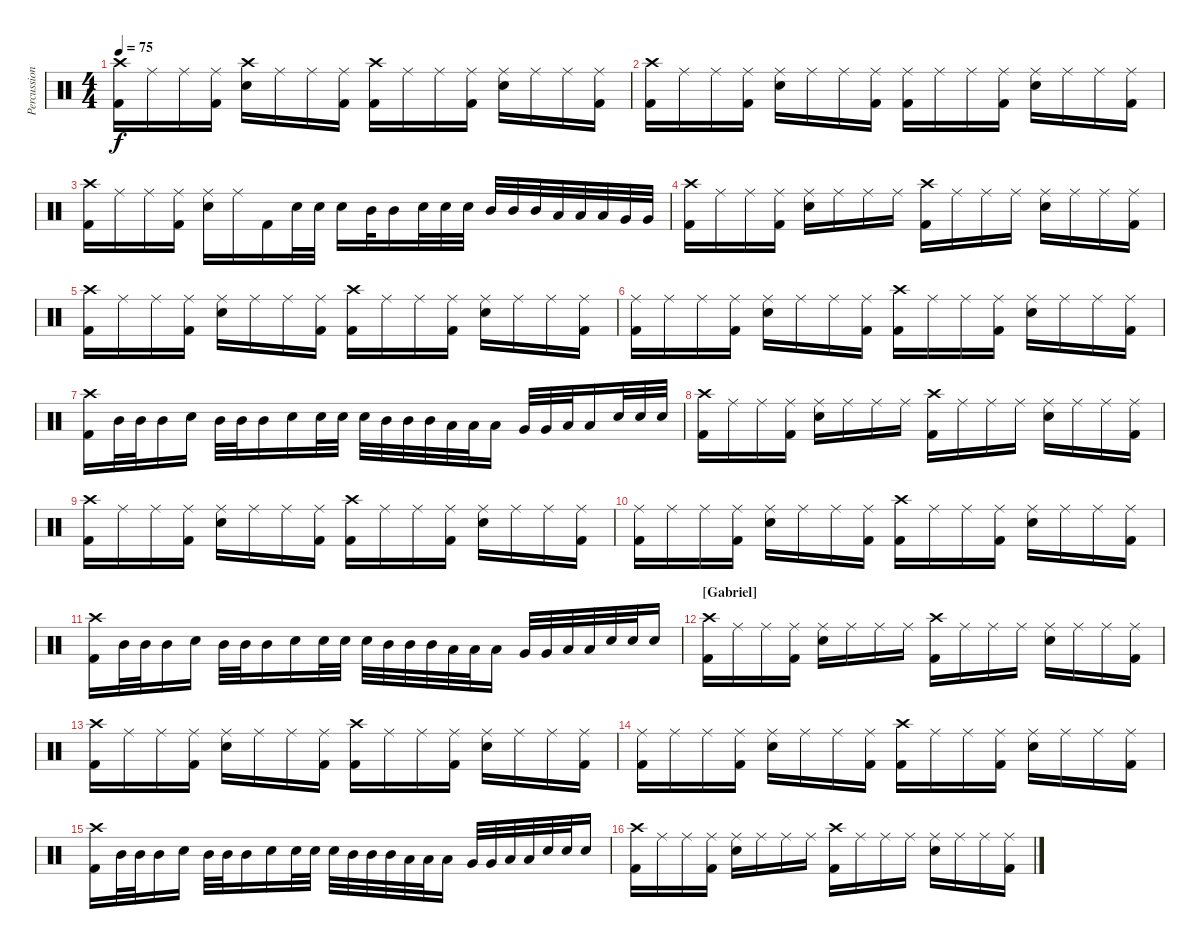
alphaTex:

\track ("Percussions" "Percussion") {instrument percussion}
\staff {score}
\articulation defaults
\ts (4 4)
\tempo 75
\clef neutral
\ks c
("Crash high (hit)" "Kick (hit) 2").16{dy f} "Ride (middle)".16 "Ride (middle)".16 ("Ride (middle)" "Kick (hit) 2").16 ("Crash high (hit)" "Electric Snare (hit)").16 "Ride (middle)".16 "Ride (middle)".16 ("Ride (middle)" "Kick (hit) 2").16 ("Crash high (hit)" "Kick (hit) 2").16 "Ride (middle)".16 "Ride (middle)".16 ("Ride (middle)" "Kick (hit) 2").16 ("Ride (middle)" "Electric Snare (hit)").16 "Ride (middle)".16 "Ride (middle)".16 ("Ride (middle)" "Kick (hit) 2").16 |
("Crash high (hit)" "Kick (hit) 2").16 "Ride (middle)".16 "Ride (middle)".16 ("Ride (middle)" "Kick (hit) 2").16 ("Ride (middle)" "Electric Snare (hit)").16 "Ride (middle)".16 "Ride (middle)".16 ("Ride (middle)" "Kick (hit) 2").16 ("Ride (middle)" "Kick (hit) 2").16 "Ride (middle)".16 "Ride (middle)".16 ("Ride (middle)" "Kick (hit) 2").16 ("Ride (middle)" "Electric Snare (hit)").16 "Ride (middle)".16 "Ride (middle)".16 ("Ride (middle)" "Kick (hit) 2").16 |
("Crash high (hit)" "Kick (hit) 2").16 "Ride (middle)".16 "Ride (middle)".16 ("Ride (middle)" "Kick (hit) 2").16 ("Ride (middle)" "Electric Snare (hit)").16 "Ride (middle)".16 "Kick (hit) 2".16 "Electric Snare (hit)".32 "Electric Snare (hit)".32 "Electric Snare (hit)".16 "Mid Tom (hit)".32 "Mid Tom (hit)".16 "Electric Snare (hit)".32 "Electric Snare (hit)".32 "Electric Snare (hit)".32 "Mid Tom (hit)".32 "Mid Tom (hit)".32 "Mid Tom (hit)".32 "Low Tom (hit)".32 "Low Tom (hit)".32 "Low Tom (hit)".32 "Very Low Tom (hit)".32 "Very Low Tom (hit)".32 |
("Crash high (hit)" "Kick (hit) 2").16 "Ride (middle)".16 "Ride (middle)".16 ("Ride (middle)" "Kick (hit) 2").16 ("Ride (middle)" "Electric Snare (hit)").16 "Ride (middle)".16 "Ride (middle)".16 "Ride (middle)".16 ("Crash high (hit)" "Kick (hit) 2").16 "Ride (middle)".16 "Ride (middle)".16 "Ride (middle)".16 ("Ride (middle)" "Electric Snare (hit)").16 "Ride (middle)".16 "Ride (middle)".16 ("Ride (middle)" "Kick (hit) 2").16 |
("Crash high (hit)" "Kick (hit) 2").16 "Ride (middle)".16 "Ride (middle)".16 ("Ride (middle)" "Kick (hit) 2").16 ("Ride (middle)" "Electric Snare (hit)").16 "Ride (middle)".16 "Ride (middle)".16 ("Ride (middle)" "Kick (hit) 2").16 ("Crash high (hit)" "Kick (hit) 2").16 "Ride (middle)".16 "Ride (middle)".16 ("Ride (middle)" "Kick (hit) 2").16 ("Ride (middle)" "Electric Snare (hit)").16 "Ride (middle)".16 "Ride (middle)".16 ("Ride (middle)" "Kick (hit) 2").16 |
("Ride (middle)" "Kick (hit) 2").16 "Ride (middle)".16 "Ride (middle)".16 ("Ride (middle)" "Kick (hit) 2").16 ("Ride (middle)" "Electric Snare (hit)").16 "Ride (middle)".16 "Ride (middle)".16 ("Ride (middle)" "Kick (hit) 2").16 ("Crash high (hit)" "Kick (hit) 2").16 "Ride (middle)".16 "Ride (middle)".16 ("Ride (middle)" "Kick (hit) 2").16 ("Ride (middle)" "Electric Snare (hit)").16 "Ride (middle)".16 "Ride (middle)".16 ("Ride (middle)" "Kick (hit) 2").16 |
("Crash high (hit)" "Kick (hit) 2").16 "Mid Tom (hit)".32 "Mid Tom (hit)".32 "Mid Tom (hit)".16 "Electric Snare (hit)".16 "Mid Tom (hit)".32 "Mid Tom (hit)".32 "Mid Tom (hit)".16 "Electric Snare (hit)".16 "Electric Snare (hit)".32 "Electric Snare (hit)".32 "Electric Snare (hit)".32 "Mid Tom (hit)".32 "Mid Tom (hit)".32 "Mid Tom (hit)".32 "Low Tom (hit)".32 "Low Tom (hit)".32 "Low Tom (hit)".16 "Very Low Tom (hit)".32 "Very Low Tom (hit)".32 "Low Floor Tom (hit)".32 "Low Floor Tom (hit)".16 "Electric Snare (hit)".32 "Electric Snare (hit)".32 "Electric Snare (hit)".32 |
("Crash high (hit)" "Kick (hit) 2").16 "Ride (middle)".16 "Ride (middle)".16 ("Ride (middle)" "Kick (hit) 2").16 ("Ride (middle)" "Electric Snare (hit)").16 "Ride (middle)".16 "Ride (middle)".16 "Ride (middle)".16 ("Crash high (hit)" "Kick (hit) 2").16 "Ride (middle)".16 "Ride (middle)".16 "Ride (middle)".16 ("Ride (middle)" "Electric Snare (hit)").16 "Ride (middle)".16 "Ride (middle)".16 ("Ride (middle)" "Kick (hit) 2").16 |
("Crash high (hit)" "Kick (hit) 2").16 "Ride (middle)".16 "Ride (middle)".16 ("Ride (middle)" "Kick (hit) 2").16 ("Ride (middle)" "Electric Snare (hit)").16 "Ride (middle)".16 "Ride (middle)".16 ("Ride (middle)" "Kick (hit) 2").16 ("Crash high (hit)" "Kick (hit) 2").16 "Ride (middle)".16 "Ride (middle)".16 ("Ride (middle)" "Kick (hit) 2").16 ("Ride (middle)" "Electric Snare (hit)").16 "Ride (middle)".16 "Ride (middle)".16 ("Ride (middle)" "Kick (hit) 2").16 |
("Ride (middle)" "Kick (hit) 2").16 "Ride (middle)".16 "Ride (middle)".16 ("Ride (middle)" "Kick (hit) 2").16 ("Ride (middle)" "Electric Snare (hit)").16 "Ride (middle)".16 "Ride (middle)".16 ("Ride (middle)" "Kick (hit) 2").16 ("Crash high (hit)" "Kick (hit) 2").16 "Ride (middle)".16 "Ride (middle)".16 ("Ride (middle)" "Kick (hit) 2").16 ("Ride (middle)" "Electric Snare (hit)").16 "Ride (middle)".16 "Ride (middle)".16 ("Ride (middle)" "Kick (hit) 2").16 |
("Crash high (hit)" "Kick (hit) 2").16 "Mid Tom (hit)".32 "Mid Tom (hit)".32 "Mid Tom (hit)".16 "Electric Snare (hit)".16 "Mid Tom (hit)".32 "Mid Tom (hit)".32 "Mid Tom (hit)".16 "Electric Snare (hit)".16 "Electric Snare (hit)".32 "Electric Snare (hit)".32 "Electric Snare (hit)".32 "Mid Tom (hit)".32 "Mid Tom (hit)".32 "Mid Tom (hit)".32 "Low Tom (hit)".32 "Low Tom (hit)".32 "Low Tom (hit)".16 "Very Low Tom (hit)".32 "Very Low Tom (hit)".32 "Low Floor Tom (hit)".32 "Low Floor Tom (hit)".32 "Electric Snare (hit)".32 "Electric Snare (hit)".32 "Electric Snare (hit)".16 |
\section ("" "[Gabriel]")
("Crash high (hit)" "Kick (hit) 2").16 "Ride (middle)".16 "Ride (middle)".16 ("Ride (middle)" "Kick (hit) 2").16 ("Ride (middle)" "Electric Snare (hit)").16 "Ride (middle)".16 "Ride (middle)".16 "Ride (middle)".16 ("Crash high (hit)" "Kick (hit) 2").16 "Ride (middle)".16 "Ride (middle)".16 "Ride (middle)".16 ("Ride (middle)" "Electric Snare (hit)").16 "Ride (middle)".16 "Ride (middle)".16 ("Ride (middle)" "Kick (hit) 2").16 |
("Crash high (hit)" "Kick (hit) 2").16 "Ride (middle)".16 "Ride (middle)".16 ("Ride (middle)" "Kick (hit) 2").16 ("Ride (middle)" "Electric Snare (hit)").16 "Ride (middle)".16 "Ride (middle)".16 ("Ride (middle)" "Kick (hit) 2").16 ("Crash high (hit)" "Kick (hit) 2").16 "Ride (middle)".16 "Ride (middle)".16 ("Ride (middle)" "Kick (hit) 2").16 ("Ride (middle)" "Electric Snare (hit)").16 "Ride (middle)".16 "Ride (middle)".16 ("Ride (middle)" "Kick (hit) 2").16 |
("Ride (middle)" "Kick (hit) 2").16 "Ride (middle)".16 "Ride (middle)".16 ("Ride (middle)" "Kick (hit) 2").16 ("Ride (middle)" "Electric Snare (hit)").16 "Ride (middle)".16 "Ride (middle)".16 ("Ride (middle)" "Kick (hit) 2").16 ("Crash high (hit)" "Kick (hit) 2").16 "Ride (middle)".16 "Ride (middle)".16 ("Ride (middle)" "Kick (hit) 2").16 ("Ride (middle)" "Electric Snare (hit)").16 "Ride (middle)".16 "Ride (middle)".16 ("Ride (middle)" "Kick (hit) 2").16 |
("Crash high (hit)" "Kick (hit) 2").16 "Mid Tom (hit)".32 "Mid Tom (hit)".32 "Mid Tom (hit)".16 "Electric Snare (hit)".16 "Mid Tom (hit)".32 "Mid Tom (hit)".32 "Mid Tom (hit)".16 "Electric Snare (hit)".16 "Electric Snare (hit)".32 "Electric Snare (hit)".32 "Electric Snare (hit)".32 "Mid Tom (hit)".32 "Mid Tom (hit)".32 "Mid Tom (hit)".32 "Low Tom (hit)".32 "Low Tom (hit)".32 "Low Tom (hit)".16 "Very Low Tom (hit)".32 "Very Low Tom (hit)".32 "Low Floor Tom (hit)".32 "Low Floor Tom (hit)".32 "Electric Snare (hit)".32 "Electric Snare (hit)".32 "Electric Snare (hit)".16 |
("Crash high (hit)" "Kick (hit) 2").16 "Ride (middle)".16 "Ride (middle)".16 ("Ride (middle)" "Kick (hit) 2").16 ("Ride (middle)" "Electric Snare (hit)").16 "Ride (middle)".16 "Ride (middle)".16 "Ride (middle)".16 ("Crash high (hit)" "Kick (hit) 2").16 "Ride (middle)".16 "Ride (middle)".16 "Ride (middle)".16 ("Ride (middle)" "Electric Snare (hit)").16 "Ride (middle)".16 "Ride (middle)".16 ("Ride (middle)" "Kick (hit) 2").16
